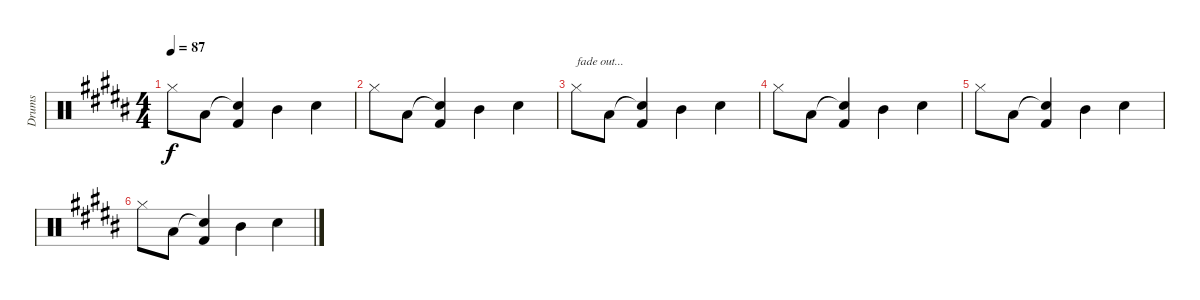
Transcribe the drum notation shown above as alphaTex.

\track ("Drums" "Drums") {instrument percussion}
\staff {score}
\articulation defaults
\ts (4 4)
\tempo 87
\clef neutral
\ks b "Hi-Hat (closed)".8{dy f} "Low Tom (hit)".8
("Snare (hit)"{t} "Kick (hit) 2").4 "Mid Tom (hit)".4 "Electric Snare (hit)".4 |
"Hi-Hat (closed)".8 "Low Tom (hit)".8 ("Snare (hit)"{t} "Kick (hit) 2").4 "Mid Tom (hit)".4 "Electric Snare (hit)".4 |
"Hi-Hat (closed)".8{txt "fade out..."} "Low Tom (hit)".8 ("Snare (hit)"{t} "Kick (hit) 2").4 "Mid Tom (hit)".4 "Electric Snare (hit)".4 |
"Hi-Hat (closed)".8 "Low Tom (hit)".8 ("Snare (hit)"{t} "Kick (hit) 2").4 "Mid Tom (hit)".4 "Electric Snare (hit)".4 |
"Hi-Hat (closed)".8 "Low Tom (hit)".8 ("Snare (hit)"{t} "Kick (hit) 2").4 "Mid Tom (hit)".4 "Electric Snare (hit)".4 |
"Hi-Hat (closed)".8 "Low Tom (hit)".8 ("Snare (hit)"{t} "Kick (hit) 2").4 "Mid Tom (hit)".4 "Electric Snare (hit)".4
